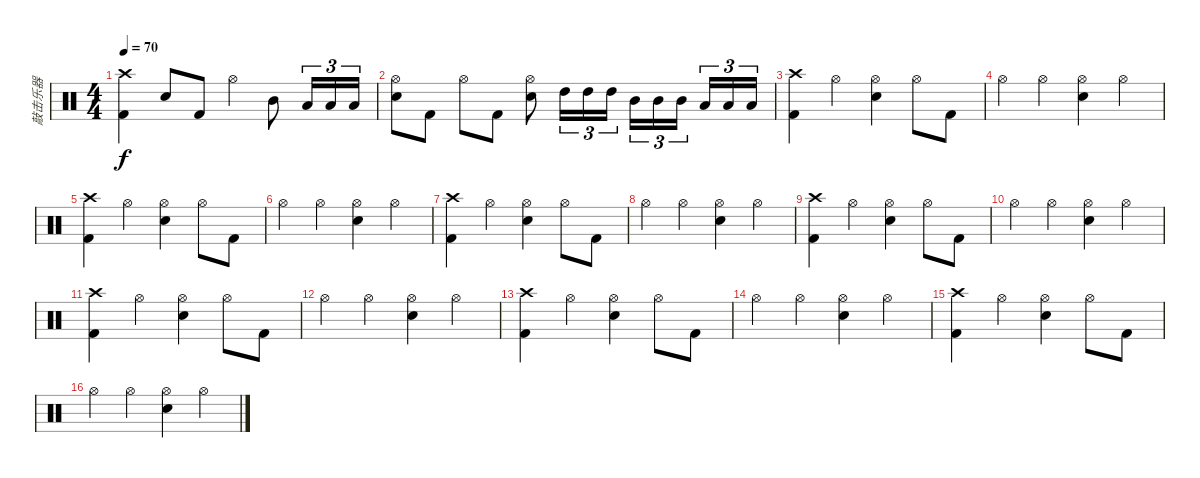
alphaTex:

\track ("敲击乐器" "敲击乐器") {instrument percussion}
\staff {score}
\articulation defaults
\ts (4 4)
\tempo 70
\clef neutral
\ks c
("Kick (hit) 2" "Crash high (hit)").4{dy f} "Snare (hit) 2".8 "Kick (hit) 2".8 "Hi-Hat (open)".4 "Mid Tom (hit)".8 "Low Tom (hit)".16{tu (3 2)} "Low Tom (hit)".16{tu (3 2)} "Low Tom (hit)".16{tu (3 2)} |
("Hi-Hat (open)" "Snare (hit) 2").8 "Kick (hit) 2".8 "Hi-Hat (open)".8 "Kick (hit) 2".8 ("Hi-Hat (open)" "Snare (hit) 2").8 "High Tom (hit)".16{tu (3 2)} "High Tom (hit)".16{tu (3 2)} "High Tom (hit)".16{tu (3 2)} "Mid Tom (hit)".16{tu (3 2)} "Mid Tom (hit)".16{tu (3 2)} "Mid Tom (hit)".16{tu (3 2) beam splitsecondary} "Low Tom (hit)".16{tu (3 2)} "Low Tom (hit)".16{tu (3 2)} "Low Tom (hit)".16{tu (3 2)} |
("Kick (hit) 2" "Crash high (hit)").4 "Hi-Hat (open)".4 ("Hi-Hat (open)" "Snare (hit) 2").4 "Hi-Hat (open)".8 "Kick (hit) 2".8 |
"Hi-Hat (open)".4 "Hi-Hat (open)".4 ("Hi-Hat (open)" "Snare (hit) 2").4 "Hi-Hat (open)".4 |
("Kick (hit) 2" "Crash high (hit)").4 "Hi-Hat (open)".4 ("Hi-Hat (open)" "Snare (hit) 2").4 "Hi-Hat (open)".8 "Kick (hit) 2".8 |
"Hi-Hat (open)".4 "Hi-Hat (open)".4 ("Hi-Hat (open)" "Snare (hit) 2").4 "Hi-Hat (open)".4 |
("Kick (hit) 2" "Crash high (hit)").4 "Hi-Hat (open)".4 ("Hi-Hat (open)" "Snare (hit) 2").4 "Hi-Hat (open)".8 "Kick (hit) 2".8 |
"Hi-Hat (open)".4 "Hi-Hat (open)".4 ("Hi-Hat (open)" "Snare (hit) 2").4 "Hi-Hat (open)".4 |
("Kick (hit) 2" "Crash high (hit)").4 "Hi-Hat (open)".4 ("Hi-Hat (open)" "Snare (hit) 2").4 "Hi-Hat (open)".8 "Kick (hit) 2".8 |
"Hi-Hat (open)".4 "Hi-Hat (open)".4 ("Hi-Hat (open)" "Snare (hit) 2").4 "Hi-Hat (open)".4 |
("Kick (hit) 2" "Crash high (hit)").4 "Hi-Hat (open)".4 ("Hi-Hat (open)" "Snare (hit) 2").4 "Hi-Hat (open)".8 "Kick (hit) 2".8 |
"Hi-Hat (open)".4 "Hi-Hat (open)".4 ("Hi-Hat (open)" "Snare (hit) 2").4 "Hi-Hat (open)".4 |
("Kick (hit) 2" "Crash high (hit)").4 "Hi-Hat (open)".4 ("Hi-Hat (open)" "Snare (hit) 2").4 "Hi-Hat (open)".8 "Kick (hit) 2".8 |
"Hi-Hat (open)".4 "Hi-Hat (open)".4 ("Hi-Hat (open)" "Snare (hit) 2").4 "Hi-Hat (open)".4 |
("Kick (hit) 2" "Crash high (hit)").4 "Hi-Hat (open)".4 ("Hi-Hat (open)" "Snare (hit) 2").4 "Hi-Hat (open)".8 "Kick (hit) 2".8 |
"Hi-Hat (open)".4 "Hi-Hat (open)".4 ("Hi-Hat (open)" "Snare (hit) 2").4 "Hi-Hat (open)".4
